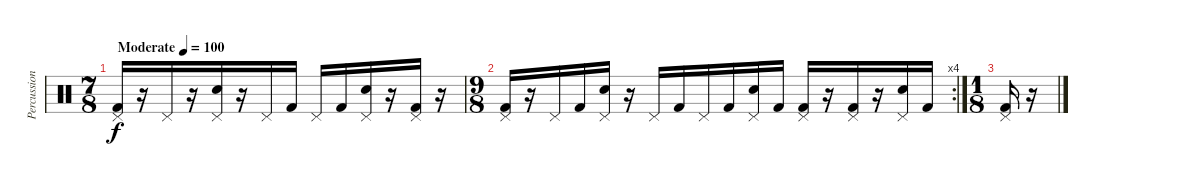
\track ("Percussion" "Percussion") {instrument percussion}
\staff {score}
\articulation defaults
\ts (7 8)
\tempo (100 "Moderate")
\clef neutral
\ks c
("Pedal Hi-Hat (hit)" "Kick (hit) 2").16{dy f} r.16 "Pedal Hi-Hat (hit)".16 r.16 ("Electric Snare (hit)" "Pedal Hi-Hat (hit)").16 r.16 "Pedal Hi-Hat (hit)".16 "Kick (hit) 2".16 "Pedal Hi-Hat (hit)".16 "Kick (hit) 2".16 ("Electric Snare (hit)" "Pedal Hi-Hat (hit)").16 r.16 ("Pedal Hi-Hat (hit)" "Kick (hit) 2").16 r.16 |
\rc 4
\ts (9 8)
("Pedal Hi-Hat (hit)" "Kick (hit) 2").16 r.16 "Pedal Hi-Hat (hit)".16 "Kick (hit) 2".16 ("Electric Snare (hit)" "Pedal Hi-Hat (hit)").16 r.16 "Pedal Hi-Hat (hit)".16 "Kick (hit) 2".16 "Pedal Hi-Hat (hit)".16 "Kick (hit) 2".16 ("Electric Snare (hit)" "Pedal Hi-Hat (hit)").16 "Kick (hit) 2".16 ("Pedal Hi-Hat (hit)" "Kick (hit) 2").16 r.16 ("Pedal Hi-Hat (hit)" "Kick (hit) 2").16 r.16 ("Electric Snare (hit)" "Pedal Hi-Hat (hit)").16 "Kick (hit) 2".16 |
\ts (1 8)
("Pedal Hi-Hat (hit)" "Kick (hit) 2").16 r.16
